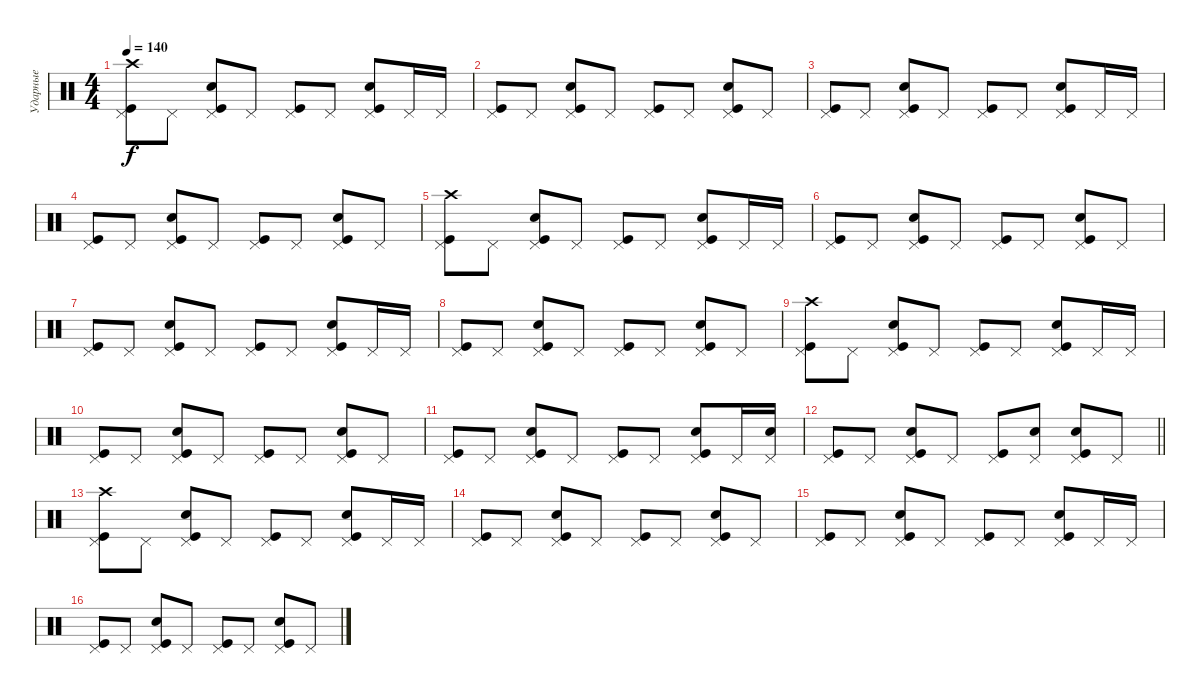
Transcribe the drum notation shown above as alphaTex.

\track ("Ударные" "Ударные") {instrument percussion}
\staff {score}
\articulation defaults
\ts (4 4)
\tempo 140
\clef neutral
\ks c
("Pedal Hi-Hat (hit)" "Kick (hit)" "Crash high (hit)").8{dy f} "Pedal Hi-Hat (hit)".8 ("Pedal Hi-Hat (hit)" "Kick (hit)" "Snare (hit) 2").8 "Pedal Hi-Hat (hit)".8 ("Pedal Hi-Hat (hit)" "Kick (hit)").8 "Pedal Hi-Hat (hit)".8 ("Pedal Hi-Hat (hit)" "Kick (hit)" "Snare (hit) 2").8 "Pedal Hi-Hat (hit)".16 "Pedal Hi-Hat (hit)".16 |
("Pedal Hi-Hat (hit)" "Kick (hit)").8 "Pedal Hi-Hat (hit)".8 ("Pedal Hi-Hat (hit)" "Kick (hit)" "Snare (hit) 2").8 "Pedal Hi-Hat (hit)".8 ("Pedal Hi-Hat (hit)" "Kick (hit)").8 "Pedal Hi-Hat (hit)".8 ("Pedal Hi-Hat (hit)" "Kick (hit)" "Snare (hit) 2").8 "Pedal Hi-Hat (hit)".8 |
("Pedal Hi-Hat (hit)" "Kick (hit)").8 "Pedal Hi-Hat (hit)".8 ("Pedal Hi-Hat (hit)" "Kick (hit)" "Snare (hit) 2").8 "Pedal Hi-Hat (hit)".8 ("Pedal Hi-Hat (hit)" "Kick (hit)").8 "Pedal Hi-Hat (hit)".8 ("Pedal Hi-Hat (hit)" "Kick (hit)" "Snare (hit) 2").8 "Pedal Hi-Hat (hit)".16 "Pedal Hi-Hat (hit)".16 |
("Pedal Hi-Hat (hit)" "Kick (hit)").8 "Pedal Hi-Hat (hit)".8 ("Pedal Hi-Hat (hit)" "Kick (hit)" "Snare (hit) 2").8 "Pedal Hi-Hat (hit)".8 ("Pedal Hi-Hat (hit)" "Kick (hit)").8 "Pedal Hi-Hat (hit)".8 ("Pedal Hi-Hat (hit)" "Kick (hit)" "Snare (hit) 2").8 "Pedal Hi-Hat (hit)".8 |
("Pedal Hi-Hat (hit)" "Kick (hit)" "Crash high (hit)").8 "Pedal Hi-Hat (hit)".8 ("Pedal Hi-Hat (hit)" "Kick (hit)" "Snare (hit) 2").8 "Pedal Hi-Hat (hit)".8 ("Pedal Hi-Hat (hit)" "Kick (hit)").8 "Pedal Hi-Hat (hit)".8 ("Pedal Hi-Hat (hit)" "Kick (hit)" "Snare (hit) 2").8 "Pedal Hi-Hat (hit)".16 "Pedal Hi-Hat (hit)".16 |
("Pedal Hi-Hat (hit)" "Kick (hit)").8 "Pedal Hi-Hat (hit)".8 ("Pedal Hi-Hat (hit)" "Kick (hit)" "Snare (hit) 2").8 "Pedal Hi-Hat (hit)".8 ("Pedal Hi-Hat (hit)" "Kick (hit)").8 "Pedal Hi-Hat (hit)".8 ("Pedal Hi-Hat (hit)" "Kick (hit)" "Snare (hit) 2").8 "Pedal Hi-Hat (hit)".8 |
("Pedal Hi-Hat (hit)" "Kick (hit)").8 "Pedal Hi-Hat (hit)".8 ("Pedal Hi-Hat (hit)" "Kick (hit)" "Snare (hit) 2").8 "Pedal Hi-Hat (hit)".8 ("Pedal Hi-Hat (hit)" "Kick (hit)").8 "Pedal Hi-Hat (hit)".8 ("Pedal Hi-Hat (hit)" "Kick (hit)" "Snare (hit) 2").8 "Pedal Hi-Hat (hit)".16 "Pedal Hi-Hat (hit)".16 |
("Pedal Hi-Hat (hit)" "Kick (hit)").8 "Pedal Hi-Hat (hit)".8 ("Pedal Hi-Hat (hit)" "Kick (hit)" "Snare (hit) 2").8 "Pedal Hi-Hat (hit)".8 ("Pedal Hi-Hat (hit)" "Kick (hit)").8 "Pedal Hi-Hat (hit)".8 ("Pedal Hi-Hat (hit)" "Kick (hit)" "Snare (hit) 2").8 "Pedal Hi-Hat (hit)".8 |
("Pedal Hi-Hat (hit)" "Kick (hit)" "Crash high (hit)").8 "Pedal Hi-Hat (hit)".8 ("Pedal Hi-Hat (hit)" "Kick (hit)" "Snare (hit) 2").8 "Pedal Hi-Hat (hit)".8 ("Pedal Hi-Hat (hit)" "Kick (hit)").8 "Pedal Hi-Hat (hit)".8 ("Pedal Hi-Hat (hit)" "Kick (hit)" "Snare (hit) 2").8 "Pedal Hi-Hat (hit)".16 "Pedal Hi-Hat (hit)".16 |
("Pedal Hi-Hat (hit)" "Kick (hit)").8 "Pedal Hi-Hat (hit)".8 ("Pedal Hi-Hat (hit)" "Kick (hit)" "Snare (hit) 2").8 "Pedal Hi-Hat (hit)".8 ("Pedal Hi-Hat (hit)" "Kick (hit)").8 "Pedal Hi-Hat (hit)".8 ("Pedal Hi-Hat (hit)" "Kick (hit)" "Snare (hit) 2").8 "Pedal Hi-Hat (hit)".8 |
("Pedal Hi-Hat (hit)" "Kick (hit)").8 "Pedal Hi-Hat (hit)".8 ("Pedal Hi-Hat (hit)" "Kick (hit)" "Snare (hit) 2").8 "Pedal Hi-Hat (hit)".8 ("Pedal Hi-Hat (hit)" "Kick (hit)").8 "Pedal Hi-Hat (hit)".8 ("Pedal Hi-Hat (hit)" "Kick (hit)" "Snare (hit) 2").8 "Pedal Hi-Hat (hit)".16 ("Pedal Hi-Hat (hit)" "Snare (hit) 2").16 |
\barLineRight lightlight
("Pedal Hi-Hat (hit)" "Kick (hit)").8 "Pedal Hi-Hat (hit)".8 ("Pedal Hi-Hat (hit)" "Kick (hit)" "Snare (hit) 2").8 "Pedal Hi-Hat (hit)".8 ("Pedal Hi-Hat (hit)" "Kick (hit)").8 ("Pedal Hi-Hat (hit)" "Snare (hit) 2").8 ("Pedal Hi-Hat (hit)" "Kick (hit)" "Snare (hit) 2").8 "Pedal Hi-Hat (hit)".8 |
\section ("" "")
("Pedal Hi-Hat (hit)" "Kick (hit)" "Crash high (hit)").8 "Pedal Hi-Hat (hit)".8 ("Pedal Hi-Hat (hit)" "Kick (hit)" "Snare (hit) 2").8 "Pedal Hi-Hat (hit)".8 ("Pedal Hi-Hat (hit)" "Kick (hit)").8 "Pedal Hi-Hat (hit)".8 ("Pedal Hi-Hat (hit)" "Kick (hit)" "Snare (hit) 2").8 "Pedal Hi-Hat (hit)".16 "Pedal Hi-Hat (hit)".16 |
("Pedal Hi-Hat (hit)" "Kick (hit)").8 "Pedal Hi-Hat (hit)".8 ("Pedal Hi-Hat (hit)" "Kick (hit)" "Snare (hit) 2").8 "Pedal Hi-Hat (hit)".8 ("Pedal Hi-Hat (hit)" "Kick (hit)").8 "Pedal Hi-Hat (hit)".8 ("Pedal Hi-Hat (hit)" "Kick (hit)" "Snare (hit) 2").8 "Pedal Hi-Hat (hit)".8 |
("Pedal Hi-Hat (hit)" "Kick (hit)").8 "Pedal Hi-Hat (hit)".8 ("Pedal Hi-Hat (hit)" "Kick (hit)" "Snare (hit) 2").8 "Pedal Hi-Hat (hit)".8 ("Pedal Hi-Hat (hit)" "Kick (hit)").8 "Pedal Hi-Hat (hit)".8 ("Pedal Hi-Hat (hit)" "Kick (hit)" "Snare (hit) 2").8 "Pedal Hi-Hat (hit)".16 "Pedal Hi-Hat (hit)".16 |
("Pedal Hi-Hat (hit)" "Kick (hit)").8 "Pedal Hi-Hat (hit)".8 ("Pedal Hi-Hat (hit)" "Kick (hit)" "Snare (hit) 2").8 "Pedal Hi-Hat (hit)".8 ("Pedal Hi-Hat (hit)" "Kick (hit)").8 "Pedal Hi-Hat (hit)".8 ("Pedal Hi-Hat (hit)" "Kick (hit)" "Snare (hit) 2").8 "Pedal Hi-Hat (hit)".8
